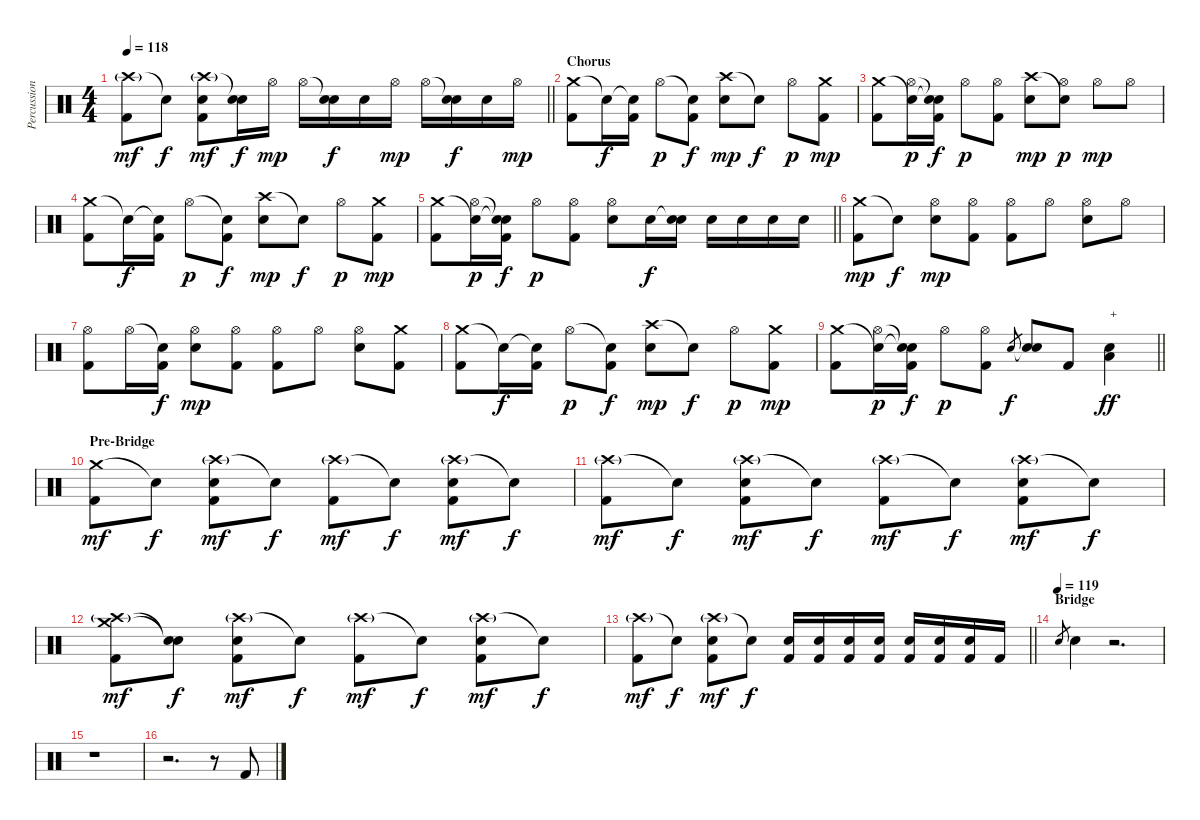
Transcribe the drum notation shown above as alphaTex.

\track ("Percussions" "Percussion") {instrument percussion}
\staff {score}
\articulation defaults
\ts (4 4)
\tempo 118
\clef neutral
\barLineRight lightlight
\ks c
("Crash high (hit)"{g} "Kick (hit) 2").8{dy mf} "Snare (hit)"{t}.8{dy f} ("Crash high (hit)"{g} "Electric Snare (hit)" "Kick (hit) 2").8{dy mf} ("Snare (hit)"{t} "Electric Snare (hit)").16{dy f} "Hi-Hat (open)".16{dy mp} "Hi-Hat (open)".16 ("Snare (hit)"{t} "Electric Snare (hit)").16{dy f} "Electric Snare (hit)".16 "Hi-Hat (open)".16{dy mp} "Hi-Hat (open)".16 ("Snare (hit)"{t} "Electric Snare (hit)").16{dy f} "Electric Snare (hit)".16 "Hi-Hat (open)".16{dy mp} |
\section ("" "Chorus")
("Crash medium (hit)" "Kick (hit) 2").8 "Snare (hit)"{t}.16{dy f} ("Snare (hit)"{t} "Kick (hit) 2").16 "Hi-Hat (open)".8{dy p} ("Snare (hit)"{t} "Kick (hit) 2").8{dy f} ("Crash high (hit)" "Electric Snare (hit)").8{dy mp} "Snare (hit)"{t}.8{dy f} "Hi-Hat (open)".8{dy p} ("Crash medium (hit)" "Kick (hit) 2").8{dy mp} |
("Crash medium (hit)" "Kick (hit) 2").8 ("Snare (hit)"{t} "Hi-Hat (open)").16{dy p} ("Snare (hit)"{t} "Snare (hit)"{t} "Kick (hit) 2").16{dy f} "Hi-Hat (open)".8{dy p} ("Hi-Hat (open)" "Kick (hit) 2").8 ("Crash high (hit)" "Electric Snare (hit)").8{dy mp} ("Snare (hit)"{t} "Hi-Hat (open)").8{dy p} "Hi-Hat (open)".8{dy mp} "Hi-Hat (open)".8 |
("Crash medium (hit)" "Kick (hit) 2").8 "Snare (hit)"{t}.16{dy f} ("Snare (hit)"{t} "Kick (hit) 2").16 "Hi-Hat (open)".8{dy p} ("Snare (hit)"{t} "Kick (hit) 2").8{dy f} ("Crash high (hit)" "Electric Snare (hit)").8{dy mp} "Snare (hit)"{t}.8{dy f} "Hi-Hat (open)".8{dy p} ("Crash medium (hit)" "Kick (hit) 2").8{dy mp} |
\barLineRight lightlight
("Crash medium (hit)" "Kick (hit) 2").8 ("Snare (hit)"{t} "Hi-Hat (open)").16{dy p} ("Snare (hit)"{t} "Snare (hit)"{t} "Kick (hit) 2").16{dy f} "Hi-Hat (open)".8{dy p} ("Hi-Hat (open)" "Kick (hit) 2").8 ("Hi-Hat (open)" "Electric Snare (hit)").8 "Electric Snare (hit)".16{dy f} ("Snare (hit)"{t} "Electric Snare (hit)").16 "Electric Snare (hit)".16 "Electric Snare (hit)".16 "Electric Snare (hit)".16 "Electric Snare (hit)".16 |
("Crash medium (hit)" "Kick (hit) 2").8{dy mp} "Snare (hit)"{t}.8{dy f} ("Hi-Hat (open)" "Electric Snare (hit)").8{dy mp} ("Hi-Hat (open)" "Kick (hit) 2").8 ("Hi-Hat (open)" "Kick (hit) 2").8 "Hi-Hat (open)".8 ("Hi-Hat (open)" "Electric Snare (hit)").8 "Hi-Hat (open)".8 |
("Hi-Hat (open)" "Kick (hit) 2").8 "Hi-Hat (open)".16 ("Snare (hit)"{t} "Kick (hit) 2").16{dy f} ("Hi-Hat (open)" "Electric Snare (hit)").8{dy mp} ("Hi-Hat (open)" "Kick (hit) 2").8 ("Hi-Hat (open)" "Kick (hit) 2").8 "Hi-Hat (open)".8 ("Hi-Hat (open)" "Electric Snare (hit)").8 ("Crash medium (hit)" "Kick (hit) 2").8 |
("Crash medium (hit)" "Kick (hit) 2").8 "Snare (hit)"{t}.16{dy f} ("Snare (hit)"{t} "Kick (hit) 2").16 "Hi-Hat (open)".8{dy p} ("Snare (hit)"{t} "Kick (hit) 2").8{dy f} ("Crash high (hit)" "Electric Snare (hit)").8{dy mp} "Snare (hit)"{t}.8{dy f} "Hi-Hat (open)".8{dy p} ("Crash medium (hit)" "Kick (hit) 2").8{dy mp} |
\barLineRight lightlight
("Crash medium (hit)" "Kick (hit) 2").8 ("Snare (hit)"{t} "Hi-Hat (open)").16{dy p} ("Snare (hit)"{t} "Snare (hit)"{t} "Kick (hit) 2").16{dy f} "Hi-Hat (open)".8{dy p} ("Hi-Hat (open)" "Kick (hit) 2").8 "Electric Snare (hit)".8{gr dy f} ("Snare (hit)"{t} "Electric Snare (hit)").8 "Kick (hit) 2".8 ("Low Floor Tom (hit)" "Electric Snare (hit)").4{txt "+" dy ff} |
\section ("" "Pre-Bridge")
("Crash medium (hit)" "Kick (hit) 2").8{dy mf} "Snare (hit)"{t}.8{dy f} ("Crash high (hit)"{g} "Electric Snare (hit)" "Kick (hit) 2").8{dy mf} "Snare (hit)"{t}.8{dy f} ("Crash high (hit)"{g} "Kick (hit) 2").8{dy mf} "Snare (hit)"{t}.8{dy f} ("Crash high (hit)"{g} "Electric Snare (hit)" "Kick (hit) 2").8{dy mf} "Snare (hit)"{t}.8{dy f} |
("Crash high (hit)"{g} "Kick (hit) 2").8{dy mf} "Snare (hit)"{t}.8{dy f} ("Crash high (hit)"{g} "Electric Snare (hit)" "Kick (hit) 2").8{dy mf} "Snare (hit)"{t}.8{dy f} ("Crash high (hit)"{g} "Kick (hit) 2").8{dy mf} "Snare (hit)"{t}.8{dy f} ("Crash high (hit)"{g} "Electric Snare (hit)" "Kick (hit) 2").8{dy mf} "Snare (hit)"{t}.8{dy f} |
("Crash medium (hit)" "Crash high (hit)"{g} "Kick (hit) 2").8{dy mf} ("Snare (hit)"{t} "Snare (hit)"{t}).8{dy f} ("Crash high (hit)"{g} "Electric Snare (hit)" "Kick (hit) 2").8{dy mf} "Snare (hit)"{t}.8{dy f} ("Crash high (hit)"{g} "Kick (hit) 2").8{dy mf} "Snare (hit)"{t}.8{dy f} ("Crash high (hit)"{g} "Electric Snare (hit)" "Kick (hit) 2").8{dy mf} "Snare (hit)"{t}.8{dy f} |
\barLineRight lightlight
("Crash high (hit)"{g} "Kick (hit) 2").8{dy mf} "Snare (hit)"{t}.8{dy f} ("Crash high (hit)"{g} "Electric Snare (hit)" "Kick (hit) 2").8{dy mf} "Snare (hit)"{t}.8{dy f} ("Electric Snare (hit)" "Kick (hit) 2").16 ("Electric Snare (hit)" "Kick (hit) 2").16 ("Electric Snare (hit)" "Kick (hit) 2").16 ("Electric Snare (hit)" "Kick (hit) 2").16 ("Electric Snare (hit)" "Kick (hit) 2").16 ("Electric Snare (hit)" "Kick (hit) 2").16 ("Electric Snare (hit)" "Kick (hit) 2").16 "Kick (hit) 2".16 |
\section ("" "Bridge")
\tempo (119)
"Electric Snare (hit)".8{gr} "Electric Snare (hit)".4 r.2{d} |
r.1 |
r.2{d} r.8 "Kick (hit) 2".8
